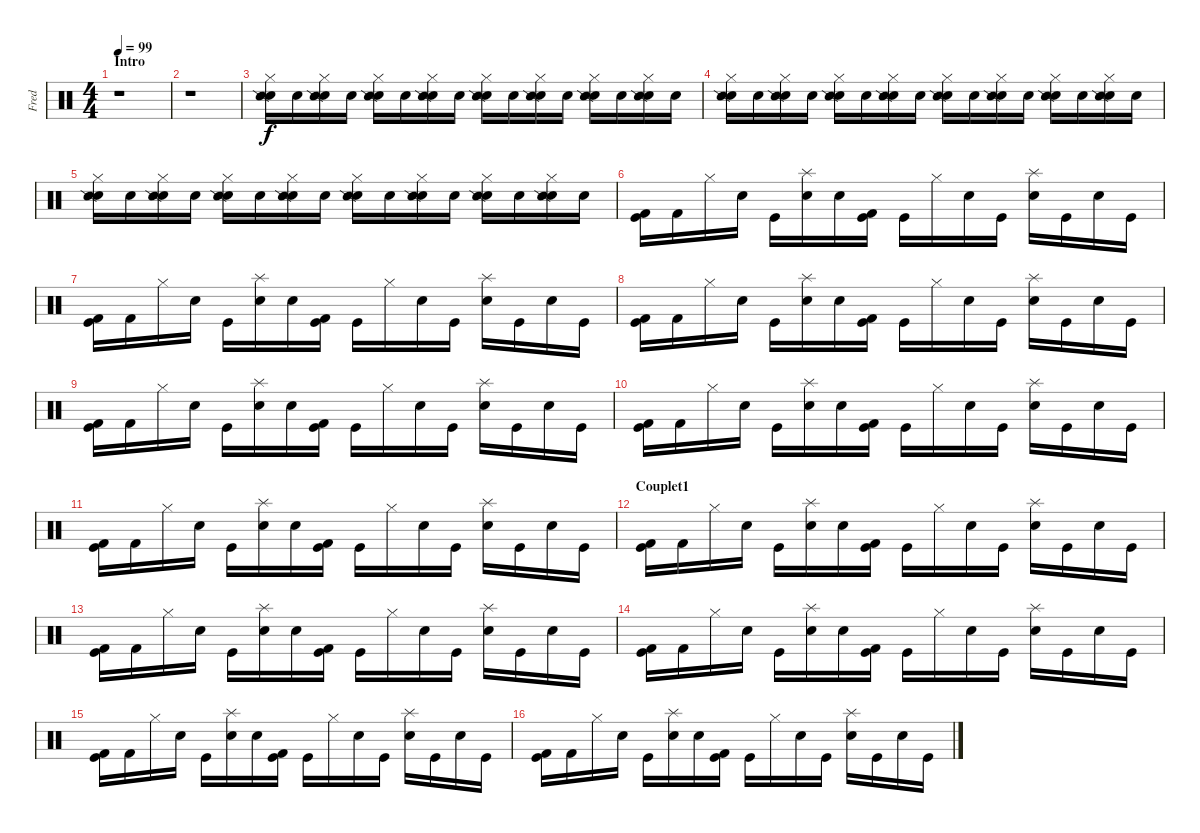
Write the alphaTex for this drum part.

\track ("Fred" "Fred") {instrument percussion}
\staff {score}
\articulation defaults
\ts (4 4)
\section ("" "Intro")
\tempo 99
\clef neutral
\ks c
r.1{dy f} |
r.1 |
("Electric Snare (hit)" "Snare (side stick) 2" "Hi-Hat (closed)").16 "Snare (hit)".16 ("Electric Snare (hit)" "Snare (side stick) 2" "Hi-Hat (closed)").16 "Snare (hit)".16 ("Electric Snare (hit)" "Snare (side stick) 2" "Hi-Hat (closed)").16 "Snare (hit)".16 ("Electric Snare (hit)" "Snare (side stick) 2" "Hi-Hat (closed)").16 "Snare (hit)".16 ("Electric Snare (hit)" "Snare (side stick) 2" "Hi-Hat (closed)").16 "Snare (hit)".16 ("Electric Snare (hit)" "Snare (side stick) 2" "Hi-Hat (closed)").16 "Snare (hit)".16 ("Electric Snare (hit)" "Snare (side stick) 2" "Hi-Hat (closed)").16 "Snare (hit)".16 ("Electric Snare (hit)" "Snare (side stick) 2" "Hi-Hat (closed)").16 "Snare (hit)".16 |
("Electric Snare (hit)" "Snare (side stick) 2" "Hi-Hat (closed)").16 "Snare (hit)".16 ("Electric Snare (hit)" "Snare (side stick) 2" "Hi-Hat (closed)").16 "Snare (hit)".16 ("Electric Snare (hit)" "Snare (side stick) 2" "Hi-Hat (closed)").16 "Snare (hit)".16 ("Electric Snare (hit)" "Snare (side stick) 2" "Hi-Hat (closed)").16 "Snare (hit)".16 ("Electric Snare (hit)" "Snare (side stick) 2" "Hi-Hat (closed)").16 "Snare (hit)".16 ("Electric Snare (hit)" "Snare (side stick) 2" "Hi-Hat (closed)").16 "Snare (hit)".16 ("Electric Snare (hit)" "Snare (side stick) 2" "Hi-Hat (closed)").16 "Snare (hit)".16 ("Electric Snare (hit)" "Snare (side stick) 2" "Hi-Hat (closed)").16 "Snare (hit)".16 |
("Electric Snare (hit)" "Snare (side stick) 2" "Hi-Hat (closed)").16 "Snare (hit)".16 ("Electric Snare (hit)" "Snare (side stick) 2" "Hi-Hat (closed)").16 "Snare (hit)".16 ("Electric Snare (hit)" "Snare (side stick) 2" "Hi-Hat (closed)").16 "Snare (hit)".16 ("Electric Snare (hit)" "Snare (side stick) 2" "Hi-Hat (closed)").16 "Snare (hit)".16 ("Electric Snare (hit)" "Snare (side stick) 2" "Hi-Hat (closed)").16 "Snare (hit)".16 ("Electric Snare (hit)" "Snare (side stick) 2" "Hi-Hat (closed)").16 "Snare (hit)".16 ("Electric Snare (hit)" "Snare (side stick) 2" "Hi-Hat (closed)").16 "Snare (hit)".16 ("Electric Snare (hit)" "Snare (side stick) 2" "Hi-Hat (closed)").16 "Snare (hit)".16 |
("Kick (hit) 2" "Kick (hit)").16 "Kick (hit) 2".16 "Hi-Hat (closed)".16 "Snare (hit)".16 "Kick (hit)".16 ("Snare (hit) 2" "Splash (hit)").16 "Snare (hit)".16 ("Kick (hit) 2" "Kick (hit)").16 "Kick (hit)".16 "Hi-Hat (closed)".16 "Snare (hit)".16 "Kick (hit)".16 ("Snare (hit) 2" "Splash (hit)").16 "Kick (hit)".16 "Snare (hit)".16 "Kick (hit)".16 |
("Kick (hit) 2" "Kick (hit)").16 "Kick (hit) 2".16 "Hi-Hat (closed)".16 "Snare (hit)".16 "Kick (hit)".16 ("Snare (hit) 2" "Splash (hit)").16 "Snare (hit)".16 ("Kick (hit) 2" "Kick (hit)").16 "Kick (hit)".16 "Hi-Hat (closed)".16 "Snare (hit)".16 "Kick (hit)".16 ("Snare (hit) 2" "Splash (hit)").16 "Kick (hit)".16 "Snare (hit)".16 "Kick (hit)".16 |
("Kick (hit) 2" "Kick (hit)").16 "Kick (hit) 2".16 "Hi-Hat (closed)".16 "Snare (hit)".16 "Kick (hit)".16 ("Snare (hit) 2" "Splash (hit)").16 "Snare (hit)".16 ("Kick (hit) 2" "Kick (hit)").16 "Kick (hit)".16 "Hi-Hat (closed)".16 "Snare (hit)".16 "Kick (hit)".16 ("Snare (hit) 2" "Splash (hit)").16 "Kick (hit)".16 "Snare (hit)".16 "Kick (hit)".16 |
("Kick (hit) 2" "Kick (hit)").16 "Kick (hit) 2".16 "Hi-Hat (closed)".16 "Snare (hit)".16 "Kick (hit)".16 ("Snare (hit) 2" "Splash (hit)").16 "Snare (hit)".16 ("Kick (hit) 2" "Kick (hit)").16 "Kick (hit)".16 "Hi-Hat (closed)".16 "Snare (hit)".16 "Kick (hit)".16 ("Snare (hit) 2" "Splash (hit)").16 "Kick (hit)".16 "Snare (hit)".16 "Kick (hit)".16 |
("Kick (hit) 2" "Kick (hit)").16 "Kick (hit) 2".16 "Hi-Hat (closed)".16 "Snare (hit)".16 "Kick (hit)".16 ("Snare (hit) 2" "Splash (hit)").16 "Snare (hit)".16 ("Kick (hit) 2" "Kick (hit)").16 "Kick (hit)".16 "Hi-Hat (closed)".16 "Snare (hit)".16 "Kick (hit)".16 ("Snare (hit) 2" "Splash (hit)").16 "Kick (hit)".16 "Snare (hit)".16 "Kick (hit)".16 |
("Kick (hit) 2" "Kick (hit)").16 "Kick (hit) 2".16 "Hi-Hat (closed)".16 "Snare (hit)".16 "Kick (hit)".16 ("Snare (hit) 2" "Splash (hit)").16 "Snare (hit)".16 ("Kick (hit) 2" "Kick (hit)").16 "Kick (hit)".16 "Hi-Hat (closed)".16 "Snare (hit)".16 "Kick (hit)".16 ("Snare (hit) 2" "Splash (hit)").16 "Kick (hit)".16 "Snare (hit)".16 "Kick (hit)".16 |
\section ("" "Couplet1")
("Kick (hit) 2" "Kick (hit)").16 "Kick (hit) 2".16 "Hi-Hat (closed)".16 "Snare (hit)".16 "Kick (hit)".16 ("Snare (hit) 2" "Splash (hit)").16 "Snare (hit)".16 ("Kick (hit) 2" "Kick (hit)").16 "Kick (hit)".16 "Hi-Hat (closed)".16 "Snare (hit)".16 "Kick (hit)".16 ("Snare (hit) 2" "Splash (hit)").16 "Kick (hit)".16 "Snare (hit)".16 "Kick (hit)".16 |
("Kick (hit) 2" "Kick (hit)").16 "Kick (hit) 2".16 "Hi-Hat (closed)".16 "Snare (hit)".16 "Kick (hit)".16 ("Snare (hit) 2" "Splash (hit)").16 "Snare (hit)".16 ("Kick (hit) 2" "Kick (hit)").16 "Kick (hit)".16 "Hi-Hat (closed)".16 "Snare (hit)".16 "Kick (hit)".16 ("Snare (hit) 2" "Splash (hit)").16 "Kick (hit)".16 "Snare (hit)".16 "Kick (hit)".16 |
("Kick (hit) 2" "Kick (hit)").16 "Kick (hit) 2".16 "Hi-Hat (closed)".16 "Snare (hit)".16 "Kick (hit)".16 ("Snare (hit) 2" "Splash (hit)").16 "Snare (hit)".16 ("Kick (hit) 2" "Kick (hit)").16 "Kick (hit)".16 "Hi-Hat (closed)".16 "Snare (hit)".16 "Kick (hit)".16 ("Snare (hit) 2" "Splash (hit)").16 "Kick (hit)".16 "Snare (hit)".16 "Kick (hit)".16 |
("Kick (hit) 2" "Kick (hit)").16 "Kick (hit) 2".16 "Hi-Hat (closed)".16 "Snare (hit)".16 "Kick (hit)".16 ("Snare (hit) 2" "Splash (hit)").16 "Snare (hit)".16 ("Kick (hit) 2" "Kick (hit)").16 "Kick (hit)".16 "Hi-Hat (closed)".16 "Snare (hit)".16 "Kick (hit)".16 ("Snare (hit) 2" "Splash (hit)").16 "Kick (hit)".16 "Snare (hit)".16 "Kick (hit)".16 |
("Kick (hit) 2" "Kick (hit)").16 "Kick (hit) 2".16 "Hi-Hat (closed)".16 "Snare (hit)".16 "Kick (hit)".16 ("Snare (hit) 2" "Splash (hit)").16 "Snare (hit)".16 ("Kick (hit) 2" "Kick (hit)").16 "Kick (hit)".16 "Hi-Hat (closed)".16 "Snare (hit)".16 "Kick (hit)".16 ("Snare (hit) 2" "Splash (hit)").16 "Kick (hit)".16 "Snare (hit)".16 "Kick (hit)".16
